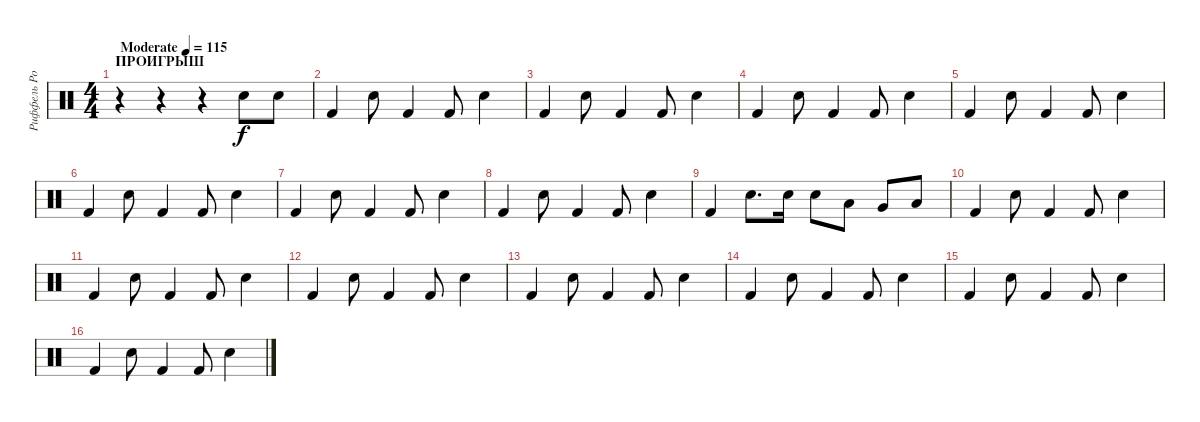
\track ("Риффель Роман(Главные)" "Риффель Ро") {instrument percussion}
\staff {score}
\articulation defaults
\ts (4 4)
\section ("" "ПРОИГРЫШ")
\tempo (115 "Moderate")
\clef neutral
\ks c
r.4{dy f} r.4 r.4 "Electric Snare (hit)".8 "Electric Snare (hit)".8 |
"Kick (hit) 2".4 "Electric Snare (hit)".8 "Kick (hit) 2".4 "Kick (hit) 2".8 "Electric Snare (hit)".4 |
"Kick (hit) 2".4 "Electric Snare (hit)".8 "Kick (hit) 2".4 "Kick (hit) 2".8 "Electric Snare (hit)".4 |
"Kick (hit) 2".4 "Electric Snare (hit)".8 "Kick (hit) 2".4 "Kick (hit) 2".8 "Electric Snare (hit)".4 |
"Kick (hit) 2".4 "Electric Snare (hit)".8 "Kick (hit) 2".4 "Kick (hit) 2".8 "Electric Snare (hit)".4 |
"Kick (hit) 2".4 "Electric Snare (hit)".8 "Kick (hit) 2".4 "Kick (hit) 2".8 "Electric Snare (hit)".4 |
"Kick (hit) 2".4 "Electric Snare (hit)".8 "Kick (hit) 2".4 "Kick (hit) 2".8 "Electric Snare (hit)".4 |
"Kick (hit) 2".4 "Electric Snare (hit)".8 "Kick (hit) 2".4 "Kick (hit) 2".8 "Electric Snare (hit)".4 |
"Kick (hit) 2".4 "Electric Snare (hit)".8{d} "Electric Snare (hit)".16 "Electric Snare (hit)".8 "Low Tom (hit)".8 "Very Low Tom (hit)".8 "Low Floor Tom (hit)".8 |
"Kick (hit) 2".4 "Electric Snare (hit)".8 "Kick (hit) 2".4 "Kick (hit) 2".8 "Electric Snare (hit)".4 |
"Kick (hit) 2".4 "Electric Snare (hit)".8 "Kick (hit) 2".4 "Kick (hit) 2".8 "Electric Snare (hit)".4 |
"Kick (hit) 2".4 "Electric Snare (hit)".8 "Kick (hit) 2".4 "Kick (hit) 2".8 "Electric Snare (hit)".4 |
"Kick (hit) 2".4 "Electric Snare (hit)".8 "Kick (hit) 2".4 "Kick (hit) 2".8 "Electric Snare (hit)".4 |
"Kick (hit) 2".4 "Electric Snare (hit)".8 "Kick (hit) 2".4 "Kick (hit) 2".8 "Electric Snare (hit)".4 |
"Kick (hit) 2".4 "Electric Snare (hit)".8 "Kick (hit) 2".4 "Kick (hit) 2".8 "Electric Snare (hit)".4 |
"Kick (hit) 2".4 "Electric Snare (hit)".8 "Kick (hit) 2".4 "Kick (hit) 2".8 "Electric Snare (hit)".4
